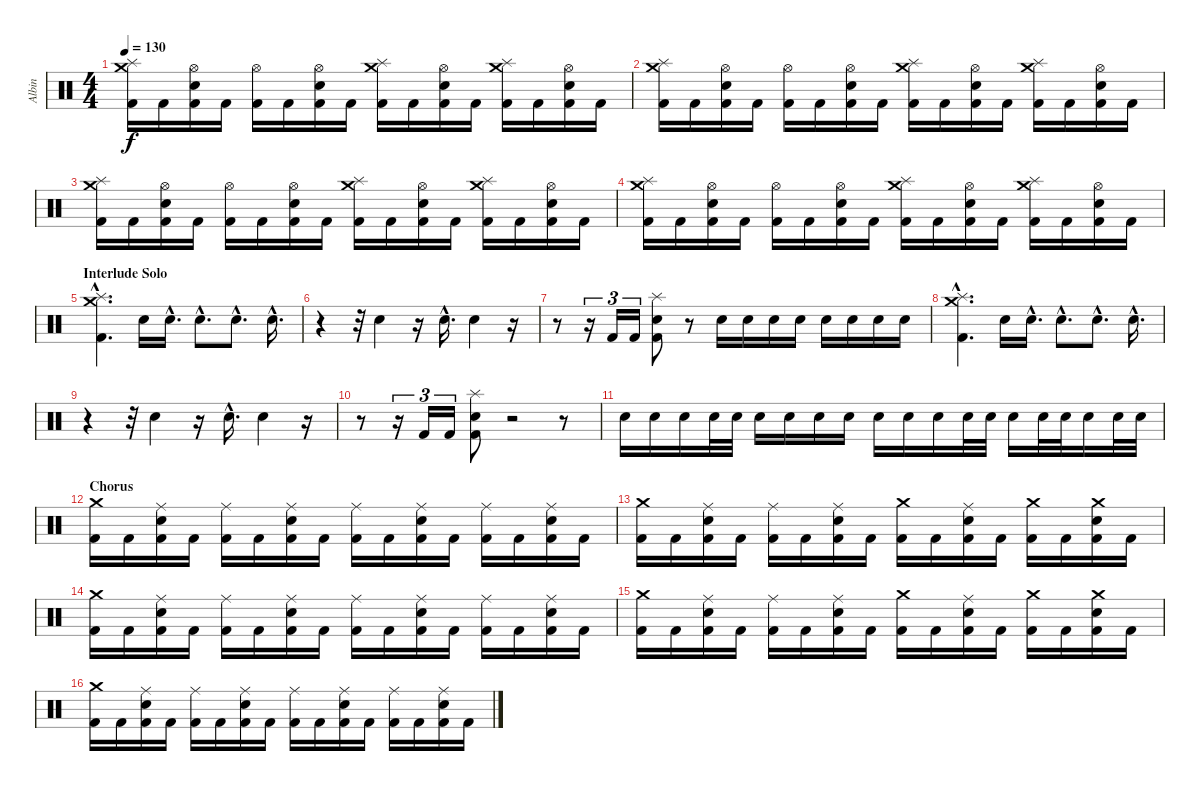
\track ("Albin" "Albin") {instrument percussion}
\staff {score}
\articulation defaults
\ts (4 4)
\tempo 130
\clef neutral
\ks c
("Crash medium (hit)" "Splash (hit)" "Kick (hit) 2").16{dy f} "Kick (hit) 2".16 ("Hi-Hat (open)" "Electric Snare (hit)" "Kick (hit) 2").16 "Kick (hit) 2".16 ("Hi-Hat (open)" "Kick (hit) 2").16 "Kick (hit) 2".16 ("Hi-Hat (open)" "Electric Snare (hit)" "Kick (hit) 2").16 "Kick (hit) 2".16 ("Crash medium (hit)" "Splash (hit)" "Kick (hit) 2").16 "Kick (hit) 2".16 ("Hi-Hat (open)" "Electric Snare (hit)" "Kick (hit) 2").16 "Kick (hit) 2".16 ("Crash medium (hit)" "Splash (hit)" "Kick (hit) 2").16 "Kick (hit) 2".16 ("Hi-Hat (open)" "Electric Snare (hit)" "Kick (hit) 2").16 "Kick (hit) 2".16 |
("Crash medium (hit)" "Splash (hit)" "Kick (hit) 2").16 "Kick (hit) 2".16 ("Hi-Hat (open)" "Electric Snare (hit)" "Kick (hit) 2").16 "Kick (hit) 2".16 ("Hi-Hat (open)" "Kick (hit) 2").16 "Kick (hit) 2".16 ("Hi-Hat (open)" "Electric Snare (hit)" "Kick (hit) 2").16 "Kick (hit) 2".16 ("Crash medium (hit)" "Splash (hit)" "Kick (hit) 2").16 "Kick (hit) 2".16 ("Hi-Hat (open)" "Electric Snare (hit)" "Kick (hit) 2").16 "Kick (hit) 2".16 ("Crash medium (hit)" "Splash (hit)" "Kick (hit) 2").16 "Kick (hit) 2".16 ("Hi-Hat (open)" "Electric Snare (hit)" "Kick (hit) 2").16 "Kick (hit) 2".16 |
("Crash medium (hit)" "Splash (hit)" "Kick (hit) 2").16 "Kick (hit) 2".16 ("Hi-Hat (open)" "Electric Snare (hit)" "Kick (hit) 2").16 "Kick (hit) 2".16 ("Hi-Hat (open)" "Kick (hit) 2").16 "Kick (hit) 2".16 ("Hi-Hat (open)" "Electric Snare (hit)" "Kick (hit) 2").16 "Kick (hit) 2".16 ("Crash medium (hit)" "Splash (hit)" "Kick (hit) 2").16 "Kick (hit) 2".16 ("Hi-Hat (open)" "Electric Snare (hit)" "Kick (hit) 2").16 "Kick (hit) 2".16 ("Crash medium (hit)" "Splash (hit)" "Kick (hit) 2").16 "Kick (hit) 2".16 ("Hi-Hat (open)" "Electric Snare (hit)" "Kick (hit) 2").16 "Kick (hit) 2".16 |
("Crash medium (hit)" "Splash (hit)" "Kick (hit) 2").16 "Kick (hit) 2".16 ("Hi-Hat (open)" "Electric Snare (hit)" "Kick (hit) 2").16 "Kick (hit) 2".16 ("Hi-Hat (open)" "Kick (hit) 2").16 "Kick (hit) 2".16 ("Hi-Hat (open)" "Electric Snare (hit)" "Kick (hit) 2").16 "Kick (hit) 2".16 ("Crash medium (hit)" "Splash (hit)" "Kick (hit) 2").16 "Kick (hit) 2".16 ("Hi-Hat (open)" "Electric Snare (hit)" "Kick (hit) 2").16 "Kick (hit) 2".16 ("Crash medium (hit)" "Splash (hit)" "Kick (hit) 2").16 "Kick (hit) 2".16 ("Hi-Hat (open)" "Electric Snare (hit)" "Kick (hit) 2").16 "Kick (hit) 2".16 |
\section ("" "Interlude Solo")
("Crash medium (hit)"{hac} "Splash (hit)"{hac} "Kick (hit) 2"{hac}).4{d} "Electric Snare (hit)".16 "Electric Snare (hit)"{hac}.16{d} "Electric Snare (hit)"{hac}.8{d} "Electric Snare (hit)"{hac}.8{d} "Electric Snare (hit)"{hac}.16{d} |
r.4 r.32 "Electric Snare (hit)".4 r.16 "Electric Snare (hit)"{hac}.16{d} "Electric Snare (hit)".4 r.16 |
r.8 r.16{tu (3 2)} "Kick (hit) 2".16{tu (3 2)} "Kick (hit) 2".16{tu (3 2)} ("Splash (hit)" "Electric Snare (hit)" "Kick (hit) 2").8 r.8 "Electric Snare (hit)".16 "Electric Snare (hit)".16 "Electric Snare (hit)".16 "Electric Snare (hit)".16 "Electric Snare (hit)".16 "Electric Snare (hit)".16 "Electric Snare (hit)".16 "Electric Snare (hit)".16 |
("Crash medium (hit)"{hac} "Splash (hit)"{hac} "Kick (hit) 2"{hac}).4{d} "Electric Snare (hit)".16 "Electric Snare (hit)"{hac}.16{d} "Electric Snare (hit)"{hac}.8{d} "Electric Snare (hit)"{hac}.8{d} "Electric Snare (hit)"{hac}.16{d} |
r.4 r.32 "Electric Snare (hit)".4 r.16 "Electric Snare (hit)"{hac}.16{d} "Electric Snare (hit)".4 r.16 |
r.8 r.16{tu (3 2)} "Kick (hit) 2".16{tu (3 2)} "Kick (hit) 2".16{tu (3 2)} ("Splash (hit)" "Electric Snare (hit)" "Kick (hit) 2").8 r.2 r.8 |
"Electric Snare (hit)".16 "Electric Snare (hit)".16 "Electric Snare (hit)".16 "Electric Snare (hit)".32 "Electric Snare (hit)".32 "Electric Snare (hit)".16 "Electric Snare (hit)".16 "Electric Snare (hit)".16 "Electric Snare (hit)".16 "Electric Snare (hit)".16 "Electric Snare (hit)".16 "Electric Snare (hit)".16 "Electric Snare (hit)".32 "Electric Snare (hit)".32 "Electric Snare (hit)".16 "Electric Snare (hit)".32 "Electric Snare (hit)".32 "Electric Snare (hit)".16 "Electric Snare (hit)".32 "Electric Snare (hit)".32 |
\section ("" "Chorus")
("Crash medium (hit)" "Kick (hit) 2").16 "Kick (hit) 2".16 ("Ride (middle)" "Electric Snare (hit)" "Kick (hit) 2").16 "Kick (hit) 2".16 ("Ride (middle)" "Kick (hit) 2").16 "Kick (hit) 2".16 ("Ride (middle)" "Electric Snare (hit)" "Kick (hit) 2").16 "Kick (hit) 2".16 ("Ride (middle)" "Kick (hit) 2").16 "Kick (hit) 2".16 ("Ride (middle)" "Electric Snare (hit)" "Kick (hit) 2").16 "Kick (hit) 2".16 ("Ride (middle)" "Kick (hit) 2").16 "Kick (hit) 2".16 ("Ride (middle)" "Electric Snare (hit)" "Kick (hit) 2").16 "Kick (hit) 2".16 |
("Crash medium (hit)" "Kick (hit) 2").16 "Kick (hit) 2".16 ("Ride (middle)" "Electric Snare (hit)" "Kick (hit) 2").16 "Kick (hit) 2".16 ("Ride (middle)" "Kick (hit) 2").16 "Kick (hit) 2".16 ("Ride (middle)" "Electric Snare (hit)" "Kick (hit) 2").16 "Kick (hit) 2".16 ("Crash medium (hit)" "Kick (hit) 2").16 "Kick (hit) 2".16 ("Ride (middle)" "Electric Snare (hit)" "Kick (hit) 2").16 "Kick (hit) 2".16 ("Crash medium (hit)" "Kick (hit) 2").16 "Kick (hit) 2".16 ("Crash medium (hit)" "Electric Snare (hit)" "Kick (hit) 2").16 "Kick (hit) 2".16 |
("Crash medium (hit)" "Kick (hit) 2").16 "Kick (hit) 2".16 ("Ride (middle)" "Electric Snare (hit)" "Kick (hit) 2").16 "Kick (hit) 2".16 ("Ride (middle)" "Kick (hit) 2").16 "Kick (hit) 2".16 ("Ride (middle)" "Electric Snare (hit)" "Kick (hit) 2").16 "Kick (hit) 2".16 ("Ride (middle)" "Kick (hit) 2").16 "Kick (hit) 2".16 ("Ride (middle)" "Electric Snare (hit)" "Kick (hit) 2").16 "Kick (hit) 2".16 ("Ride (middle)" "Kick (hit) 2").16 "Kick (hit) 2".16 ("Ride (middle)" "Electric Snare (hit)" "Kick (hit) 2").16 "Kick (hit) 2".16 |
("Crash medium (hit)" "Kick (hit) 2").16 "Kick (hit) 2".16 ("Ride (middle)" "Electric Snare (hit)" "Kick (hit) 2").16 "Kick (hit) 2".16 ("Ride (middle)" "Kick (hit) 2").16 "Kick (hit) 2".16 ("Ride (middle)" "Electric Snare (hit)" "Kick (hit) 2").16 "Kick (hit) 2".16 ("Crash medium (hit)" "Kick (hit) 2").16 "Kick (hit) 2".16 ("Ride (middle)" "Electric Snare (hit)" "Kick (hit) 2").16 "Kick (hit) 2".16 ("Crash medium (hit)" "Kick (hit) 2").16 "Kick (hit) 2".16 ("Crash medium (hit)" "Electric Snare (hit)" "Kick (hit) 2").16 "Kick (hit) 2".16 |
("Crash medium (hit)" "Kick (hit) 2").16 "Kick (hit) 2".16 ("Ride (middle)" "Electric Snare (hit)" "Kick (hit) 2").16 "Kick (hit) 2".16 ("Ride (middle)" "Kick (hit) 2").16 "Kick (hit) 2".16 ("Ride (middle)" "Electric Snare (hit)" "Kick (hit) 2").16 "Kick (hit) 2".16 ("Ride (middle)" "Kick (hit) 2").16 "Kick (hit) 2".16 ("Ride (middle)" "Electric Snare (hit)" "Kick (hit) 2").16 "Kick (hit) 2".16 ("Ride (middle)" "Kick (hit) 2").16 "Kick (hit) 2".16 ("Ride (middle)" "Electric Snare (hit)" "Kick (hit) 2").16 "Kick (hit) 2".16
